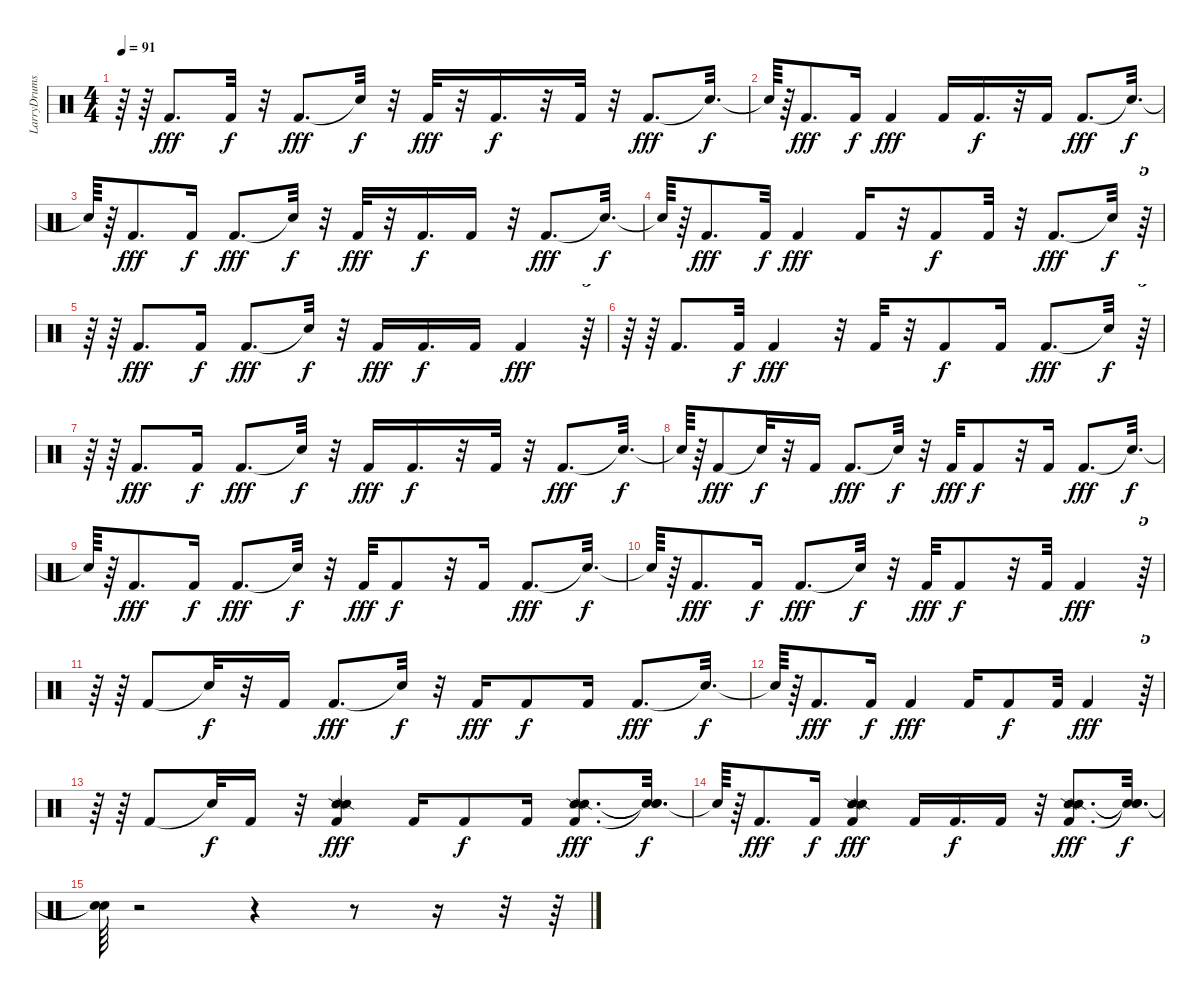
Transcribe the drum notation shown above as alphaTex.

\track ("LarryDrums" "LarryDrums") {instrument percussion}
\staff {score}
\articulation defaults
\ts (4 4)
\tempo 91
\clef neutral
\ks c
r.64{dy f} r.64 "Kick (hit) 2".8{d dy fff} "Kick (hit) 2".32{dy f} r.32 "Kick (hit) 2".8{d dy fff} "Snare (hit)"{t}.32{dy f} r.32 "Kick (hit) 2".32{dy fff} r.32 "Kick (hit) 2".16{d dy f} r.32 "Kick (hit) 2".32 r.32 "Kick (hit) 2".8{d dy fff} "Snare (hit)"{t}.32{d dy f} |
"Snare (hit)"{t}.64 r.64 "Kick (hit) 2".8{d dy fff} "Kick (hit) 2".16{dy f} "Kick (hit) 2".4{dy fff} "Kick (hit) 2".16 "Kick (hit) 2".16{d dy f} r.32 "Kick (hit) 2".16 "Kick (hit) 2".8{d dy fff} "Snare (hit)"{t}.32{d dy f} |
"Snare (hit)"{t}.64 r.64 "Kick (hit) 2".8{d dy fff} "Kick (hit) 2".16{dy f} "Kick (hit) 2".8{d dy fff} "Snare (hit)"{t}.32{dy f} r.32 "Kick (hit) 2".32{dy fff} r.32 "Kick (hit) 2".16{d dy f} "Kick (hit) 2".16 r.32 "Kick (hit) 2".8{d dy fff} "Snare (hit)"{t}.32{d dy f} |
"Snare (hit)"{t}.64 r.64 "Kick (hit) 2".8{d dy fff} "Kick (hit) 2".32{dy f} "Kick (hit) 2".4{dy fff} "Kick (hit) 2".16 r.32 "Kick (hit) 2".8{dy f} "Kick (hit) 2".32 r.32 "Kick (hit) 2".8{d dy fff} "Snare (hit)"{t}.32{dy f} r.64{tu (5 4)} |
r.64 r.64 "Kick (hit) 2".8{d dy fff} "Kick (hit) 2".16{dy f} "Kick (hit) 2".8{d dy fff} "Snare (hit)"{t}.32{dy f} r.32 "Kick (hit) 2".16{dy fff} "Kick (hit) 2".16{d dy f} "Kick (hit) 2".16 "Kick (hit) 2".4{dy fff} r.64{tu (5 4)} |
r.64 r.64 "Kick (hit) 2".8{d} "Kick (hit) 2".32{dy f} "Kick (hit) 2".4{dy fff} r.32 "Kick (hit) 2".32 r.32 "Kick (hit) 2".8{dy f} "Kick (hit) 2".16 "Kick (hit) 2".8{d dy fff} "Snare (hit)"{t}.32{dy f} r.64{tu (5 4)} |
r.64 r.64 "Kick (hit) 2".8{d dy fff} "Kick (hit) 2".16{dy f} "Kick (hit) 2".8{d dy fff} "Snare (hit)"{t}.32{dy f} r.32 "Kick (hit) 2".16{dy fff} "Kick (hit) 2".16{d dy f} r.32 "Kick (hit) 2".32 r.32 "Kick (hit) 2".8{d dy fff} "Snare (hit)"{t}.32{d dy f} |
"Snare (hit)"{t}.64 r.64 "Kick (hit) 2".8{dy fff} "Snare (hit)"{t}.32{dy f} r.32 "Kick (hit) 2".16 "Kick (hit) 2".8{d dy fff} "Snare (hit)"{t}.32{dy f} r.32 "Kick (hit) 2".32{dy fff} "Kick (hit) 2".8{dy f} r.32 "Kick (hit) 2".16 "Kick (hit) 2".8{d dy fff} "Snare (hit)"{t}.32{d dy f} |
"Snare (hit)"{t}.64 r.64 "Kick (hit) 2".8{d dy fff} "Kick (hit) 2".16{dy f} "Kick (hit) 2".8{d dy fff} "Snare (hit)"{t}.32{dy f} r.32 "Kick (hit) 2".32{dy fff} "Kick (hit) 2".8{dy f} r.32 "Kick (hit) 2".16 "Kick (hit) 2".8{d dy fff} "Snare (hit)"{t}.32{d dy f} |
"Snare (hit)"{t}.64 r.64 "Kick (hit) 2".8{d dy fff} "Kick (hit) 2".16{dy f} "Kick (hit) 2".8{d dy fff} "Snare (hit)"{t}.32{dy f} r.32 "Kick (hit) 2".32{dy fff} "Kick (hit) 2".8{dy f} r.32 "Kick (hit) 2".32 "Kick (hit) 2".4{dy fff} r.64{tu (5 4)} |
r.64 r.64 "Kick (hit) 2".8 "Snare (hit)"{t}.32{dy f} r.32 "Kick (hit) 2".16 "Kick (hit) 2".8{d dy fff} "Snare (hit)"{t}.32{dy f} r.32 "Kick (hit) 2".16{dy fff} "Kick (hit) 2".8{dy f} "Kick (hit) 2".16 "Kick (hit) 2".8{d dy fff} "Snare (hit)"{t}.32{d dy f} |
"Snare (hit)"{t}.64 r.64 "Kick (hit) 2".8{d dy fff} "Kick (hit) 2".16{dy f} "Kick (hit) 2".4{dy fff} "Kick (hit) 2".16 "Kick (hit) 2".8{dy f} "Kick (hit) 2".32 "Kick (hit) 2".4{dy fff} r.64{tu (5 4)} |
r.64 r.64 "Kick (hit) 2".8 "Snare (hit)"{t}.32{dy f} "Kick (hit) 2".16 r.32 ("Kick (hit) 2" "Snare (side stick) 2" "Snare (side stick) 2").4{dy fff} "Kick (hit) 2".16 "Kick (hit) 2".8{dy f} "Kick (hit) 2".16 ("Kick (hit) 2" "Snare (side stick) 2" "Snare (side stick) 2").8{d dy fff} ("Snare (hit)"{t} "Snare (hit)"{t} "Snare (hit)"{t}).32{d dy f} |
"Snare (hit)"{t}.64 r.64 "Kick (hit) 2".8{d dy fff} "Kick (hit) 2".16{dy f} ("Kick (hit) 2" "Snare (side stick) 2" "Snare (side stick) 2").4{dy fff} "Kick (hit) 2".16 "Kick (hit) 2".16{d dy f} "Kick (hit) 2".16 r.32 ("Snare (side stick) 2" "Snare (side stick) 2" "Kick (hit) 2").8{d dy fff} ("Snare (hit)"{t} "Snare (hit)"{t} "Snare (hit)"{t}).32{d dy f} |
("Snare (hit)"{t} "Snare (hit)"{t}).64 r.2 r.4 r.8 r.16 r.32 r.64
